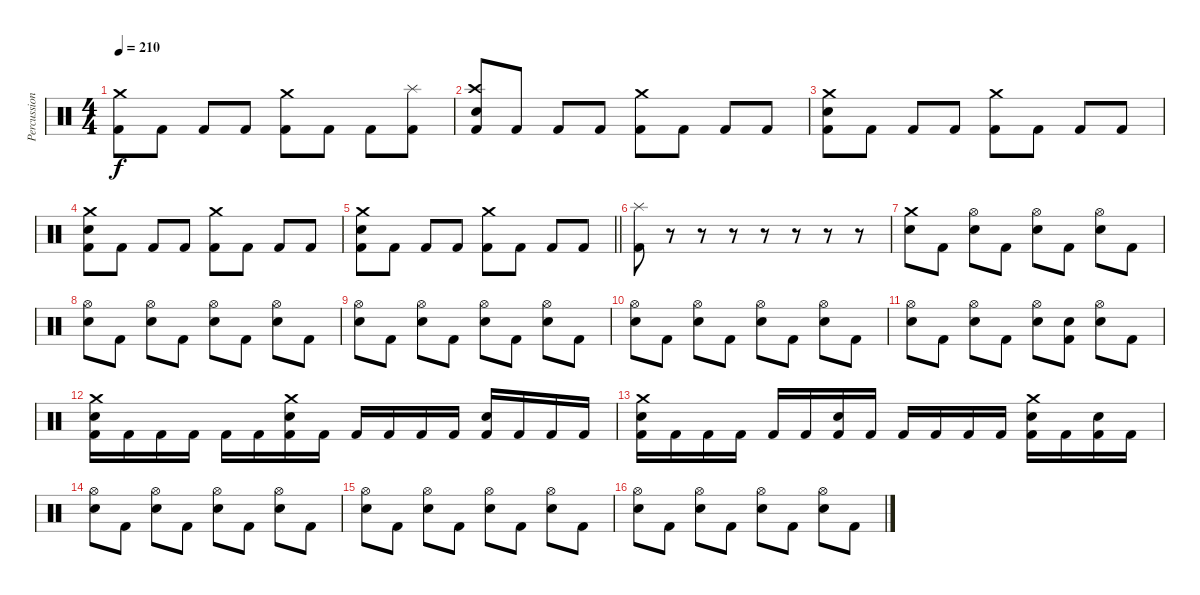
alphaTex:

\track ("Percussion" "Percussion") {instrument percussion}
\staff {score}
\articulation defaults
\ts (4 4)
\tempo 210
\clef neutral
\ks c
("Crash medium (hit)" "Kick (hit) 2").8{dy f} "Kick (hit) 2".8 "Kick (hit) 2".8 "Kick (hit) 2".8 ("Crash medium (hit)" "Kick (hit) 2").8 "Kick (hit) 2".8 "Kick (hit) 2".8 ("Splash (hit)" "Kick (hit) 2").8 |
("Crash high (hit)" "Electric Snare (hit)" "Kick (hit) 2").8 "Kick (hit) 2".8 "Kick (hit) 2".8 "Kick (hit) 2".8 ("Crash medium (hit)" "Kick (hit) 2").8 "Kick (hit) 2".8 "Kick (hit) 2".8 "Kick (hit) 2".8 |
("Crash medium (hit)" "Electric Snare (hit)" "Kick (hit) 2").8 "Kick (hit) 2".8 "Kick (hit) 2".8 "Kick (hit) 2".8 ("Crash medium (hit)" "Kick (hit) 2").8 "Kick (hit) 2".8 "Kick (hit) 2".8 "Kick (hit) 2".8 |
("Crash medium (hit)" "Electric Snare (hit)" "Kick (hit) 2").8 "Kick (hit) 2".8 "Kick (hit) 2".8 "Kick (hit) 2".8 ("Crash medium (hit)" "Kick (hit) 2").8 "Kick (hit) 2".8 "Kick (hit) 2".8 "Kick (hit) 2".8 |
\barLineRight lightlight
("Crash medium (hit)" "Electric Snare (hit)" "Kick (hit) 2").8 "Kick (hit) 2".8 "Kick (hit) 2".8 "Kick (hit) 2".8 ("Crash medium (hit)" "Kick (hit) 2").8 "Kick (hit) 2".8 "Kick (hit) 2".8 "Kick (hit) 2".8 |
("Splash (hit)" "Kick (hit) 2").8 r.8 r.8 r.8 r.8 r.8 r.8 r.8 |
("Crash medium (hit)" "Electric Snare (hit)").8 "Kick (hit) 2".8 ("Hi-Hat (open)" "Electric Snare (hit)").8 "Kick (hit) 2".8 ("Hi-Hat (open)" "Electric Snare (hit)").8 "Kick (hit) 2".8 ("Hi-Hat (open)" "Electric Snare (hit)").8 "Kick (hit) 2".8 |
("Hi-Hat (open)" "Electric Snare (hit)").8 "Kick (hit) 2".8 ("Hi-Hat (open)" "Electric Snare (hit)").8 "Kick (hit) 2".8 ("Hi-Hat (open)" "Electric Snare (hit)").8 "Kick (hit) 2".8 ("Hi-Hat (open)" "Electric Snare (hit)").8 "Kick (hit) 2".8 |
("Hi-Hat (open)" "Electric Snare (hit)").8 "Kick (hit) 2".8 ("Hi-Hat (open)" "Electric Snare (hit)").8 "Kick (hit) 2".8 ("Hi-Hat (open)" "Electric Snare (hit)").8 "Kick (hit) 2".8 ("Hi-Hat (open)" "Electric Snare (hit)").8 "Kick (hit) 2".8 |
("Hi-Hat (open)" "Electric Snare (hit)").8 "Kick (hit) 2".8 ("Hi-Hat (open)" "Electric Snare (hit)").8 "Kick (hit) 2".8 ("Hi-Hat (open)" "Electric Snare (hit)").8 "Kick (hit) 2".8 ("Hi-Hat (open)" "Electric Snare (hit)").8 "Kick (hit) 2".8 |
("Hi-Hat (open)" "Electric Snare (hit)").8 "Kick (hit) 2".8 ("Hi-Hat (open)" "Electric Snare (hit)").8 "Kick (hit) 2".8 ("Hi-Hat (open)" "Electric Snare (hit)").8 ("Electric Snare (hit)" "Kick (hit) 2").8 ("Hi-Hat (open)" "Electric Snare (hit)").8 "Kick (hit) 2".8 |
("Crash medium (hit)" "Electric Snare (hit)" "Kick (hit) 2").16 "Kick (hit) 2".16 "Kick (hit) 2".16 "Kick (hit) 2".16 "Kick (hit) 2".16 "Kick (hit) 2".16 ("Crash medium (hit)" "Electric Snare (hit)" "Kick (hit) 2").16 "Kick (hit) 2".16 "Kick (hit) 2".16 "Kick (hit) 2".16 "Kick (hit) 2".16 "Kick (hit) 2".16 ("Electric Snare (hit)" "Kick (hit) 2").16 "Kick (hit) 2".16 "Kick (hit) 2".16 "Kick (hit) 2".16 |
("Crash medium (hit)" "Electric Snare (hit)" "Kick (hit) 2").16 "Kick (hit) 2".16 "Kick (hit) 2".16 "Kick (hit) 2".16 "Kick (hit) 2".16 "Kick (hit) 2".16 ("Electric Snare (hit)" "Kick (hit) 2").16 "Kick (hit) 2".16 "Kick (hit) 2".16 "Kick (hit) 2".16 "Kick (hit) 2".16 "Kick (hit) 2".16 ("Crash medium (hit)" "Electric Snare (hit)" "Kick (hit) 2").16 "Kick (hit) 2".16 ("Electric Snare (hit)" "Kick (hit) 2").16 "Kick (hit) 2".16 |
("Hi-Hat (open)" "Electric Snare (hit)").8 "Kick (hit) 2".8 ("Hi-Hat (open)" "Electric Snare (hit)").8 "Kick (hit) 2".8 ("Hi-Hat (open)" "Electric Snare (hit)").8 "Kick (hit) 2".8 ("Hi-Hat (open)" "Electric Snare (hit)").8 "Kick (hit) 2".8 |
("Hi-Hat (open)" "Electric Snare (hit)").8 "Kick (hit) 2".8 ("Hi-Hat (open)" "Electric Snare (hit)").8 "Kick (hit) 2".8 ("Hi-Hat (open)" "Electric Snare (hit)").8 "Kick (hit) 2".8 ("Hi-Hat (open)" "Electric Snare (hit)").8 "Kick (hit) 2".8 |
("Hi-Hat (open)" "Electric Snare (hit)").8 "Kick (hit) 2".8 ("Hi-Hat (open)" "Electric Snare (hit)").8 "Kick (hit) 2".8 ("Hi-Hat (open)" "Electric Snare (hit)").8 "Kick (hit) 2".8 ("Hi-Hat (open)" "Electric Snare (hit)").8 "Kick (hit) 2".8
